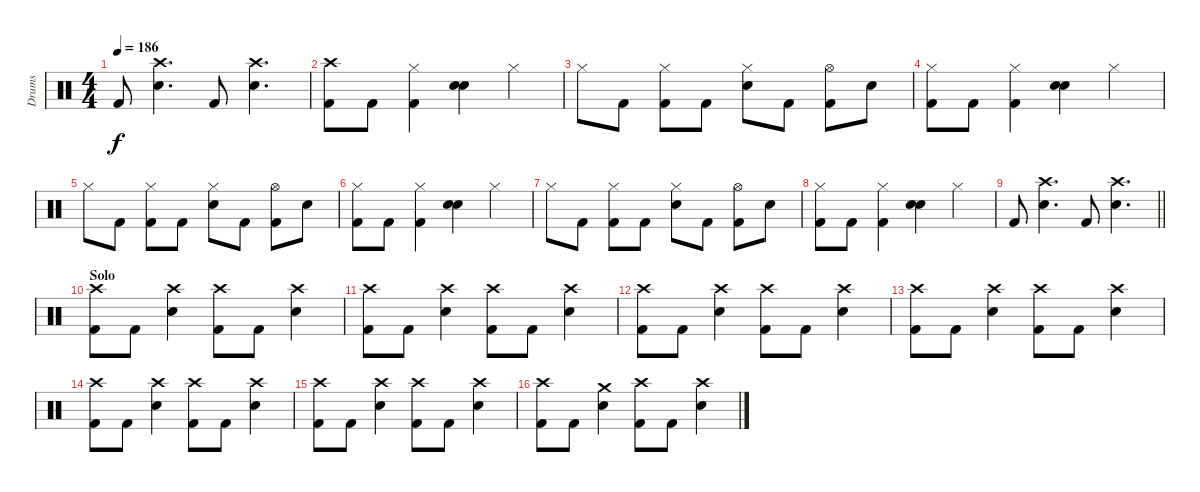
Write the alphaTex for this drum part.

\track ("Drums" "Drums") {instrument percussion}
\staff {score}
\articulation defaults
\ts (4 4)
\tempo 186
\clef neutral
\ks c "Kick (hit) 2".8{dy f}
("Crash high (hit)" "Snare (hit) 2").4{d} "Kick (hit) 2".8 ("Crash high (hit)" "Snare (hit) 2").4{d} |
("Crash high (hit)" "Kick (hit) 2").8 "Kick (hit) 2".8 ("Hi-Hat (closed)" "Kick (hit) 2").4 ("Snare (hit) 2" "Snare (hit) 2").4 "Hi-Hat (closed)".4 |
"Hi-Hat (closed)".8 "Kick (hit) 2".8 ("Hi-Hat (closed)" "Kick (hit) 2").8 "Kick (hit) 2".8 ("Hi-Hat (closed)" "Snare (hit) 2").8 "Kick (hit) 2".8 ("Hi-Hat (open)" "Kick (hit) 2").8 "Snare (hit) 2".8 |
("Hi-Hat (closed)" "Kick (hit) 2").8 "Kick (hit) 2".8 ("Hi-Hat (closed)" "Kick (hit) 2").4 ("Snare (hit) 2" "Snare (hit) 2").4 "Hi-Hat (closed)".4 |
"Hi-Hat (closed)".8 "Kick (hit) 2".8 ("Hi-Hat (closed)" "Kick (hit) 2").8 "Kick (hit) 2".8 ("Hi-Hat (closed)" "Snare (hit) 2").8 "Kick (hit) 2".8 ("Hi-Hat (open)" "Kick (hit) 2").8 "Snare (hit) 2".8 |
("Hi-Hat (closed)" "Kick (hit) 2").8 "Kick (hit) 2".8 ("Hi-Hat (closed)" "Kick (hit) 2").4 ("Snare (hit) 2" "Snare (hit) 2").4 "Hi-Hat (closed)".4 |
"Hi-Hat (closed)".8 "Kick (hit) 2".8 ("Hi-Hat (closed)" "Kick (hit) 2").8 "Kick (hit) 2".8 ("Hi-Hat (closed)" "Snare (hit) 2").8 "Kick (hit) 2".8 ("Hi-Hat (open)" "Kick (hit) 2").8 "Snare (hit) 2".8 |
("Hi-Hat (closed)" "Kick (hit) 2").8 "Kick (hit) 2".8 ("Hi-Hat (closed)" "Kick (hit) 2").4 ("Snare (hit) 2" "Snare (hit) 2").4 "Hi-Hat (closed)".4 |
\barLineRight lightlight "Kick (hit) 2".8
("Crash high (hit)" "Snare (hit) 2").4{d} "Kick (hit) 2".8 ("Crash high (hit)" "Snare (hit) 2").4{d} |
\section ("" "Solo")
("Crash high (hit)" "Kick (hit) 2").8 "Kick (hit) 2".8 ("Crash high (hit)" "Snare (hit) 2").4 ("Crash high (hit)" "Kick (hit) 2").8 "Kick (hit) 2".8 ("Crash high (hit)" "Snare (hit) 2").4 |
("Crash high (hit)" "Kick (hit) 2").8 "Kick (hit) 2".8 ("Crash high (hit)" "Snare (hit) 2").4 ("Crash high (hit)" "Kick (hit) 2").8 "Kick (hit) 2".8 ("Crash high (hit)" "Snare (hit) 2").4 |
("Crash high (hit)" "Kick (hit) 2").8 "Kick (hit) 2".8 ("Crash high (hit)" "Snare (hit) 2").4 ("Crash high (hit)" "Kick (hit) 2").8 "Kick (hit) 2".8 ("Crash high (hit)" "Snare (hit) 2").4 |
("Crash high (hit)" "Kick (hit) 2").8 "Kick (hit) 2".8 ("Crash high (hit)" "Snare (hit) 2").4 ("Crash high (hit)" "Kick (hit) 2").8 "Kick (hit) 2".8 ("Crash high (hit)" "Snare (hit) 2").4 |
("Crash high (hit)" "Kick (hit) 2").8 "Kick (hit) 2".8 ("Crash high (hit)" "Snare (hit) 2").4 ("Crash high (hit)" "Kick (hit) 2").8 "Kick (hit) 2".8 ("Crash high (hit)" "Snare (hit) 2").4 |
("Crash high (hit)" "Kick (hit) 2").8 "Kick (hit) 2".8 ("Crash high (hit)" "Snare (hit) 2").4 ("Crash high (hit)" "Kick (hit) 2").8 "Kick (hit) 2".8 ("Crash high (hit)" "Snare (hit) 2").4 |
("Crash high (hit)" "Kick (hit) 2").8 "Kick (hit) 2".8 ("Crash medium (hit)" "Snare (hit) 2").4 ("Crash high (hit)" "Kick (hit) 2").8 "Kick (hit) 2".8 ("Crash high (hit)" "Snare (hit) 2").4
